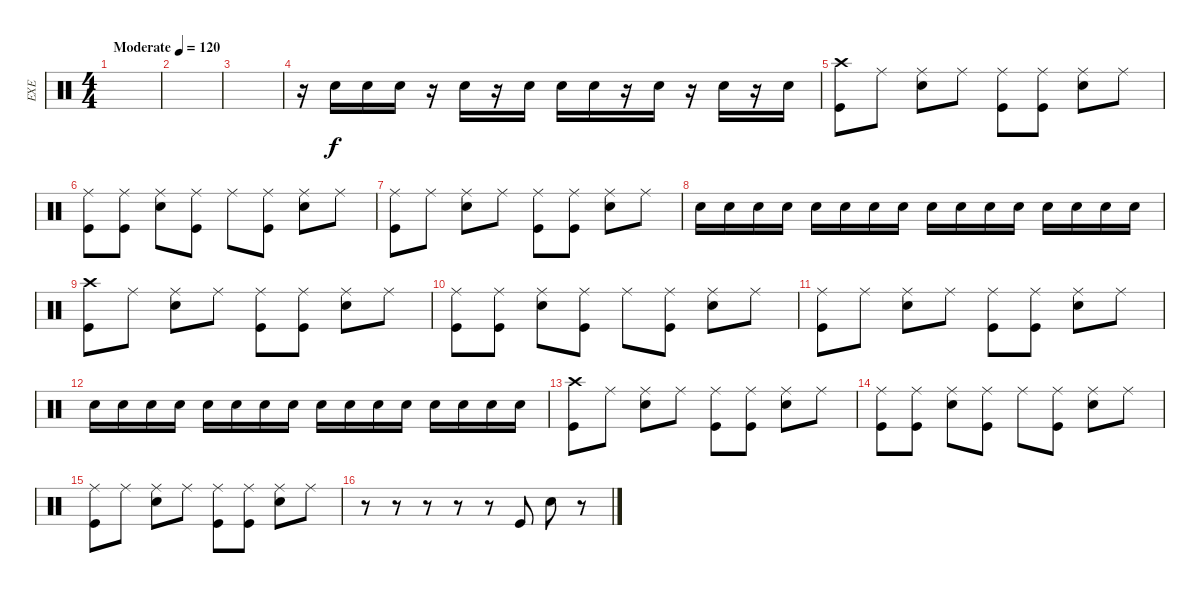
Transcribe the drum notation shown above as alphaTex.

\track ("EXE" "EXE") {instrument percussion}
\staff {score}
\articulation defaults
\ts (4 4)
\tempo (120 "Moderate")
\clef neutral
\ks c
|
|
|
r.16 "Snare (hit) 2".16 "Snare (hit) 2".16 "Snare (hit) 2".16 r.16 "Snare (hit) 2".16 r.16 "Snare (hit) 2".16 "Snare (hit) 2".16 "Snare (hit) 2".16 r.16 "Snare (hit) 2".16 r.16 "Snare (hit) 2".16 r.16 "Snare (hit) 2".16 |
("Kick (hit)" "Crash high (hit)").8 "Ride (middle)".8 ("Snare (hit) 2" "Ride (middle)").8 "Ride (middle)".8 ("Kick (hit)" "Ride (middle)").8 ("Kick (hit)" "Ride (middle)").8 ("Snare (hit) 2" "Ride (middle)").8 "Ride (middle)".8 |
("Kick (hit)" "Ride (middle)").8 ("Kick (hit)" "Ride (middle)").8 ("Snare (hit) 2" "Ride (middle)").8 ("Kick (hit)" "Ride (middle)").8 "Ride (middle)".8 ("Kick (hit)" "Ride (middle)").8 ("Snare (hit) 2" "Ride (middle)").8 "Ride (middle)".8 |
("Kick (hit)" "Ride (middle)").8 "Ride (middle)".8 ("Snare (hit) 2" "Ride (middle)").8 "Ride (middle)".8 ("Kick (hit)" "Ride (middle)").8 ("Kick (hit)" "Ride (middle)").8 ("Snare (hit) 2" "Ride (middle)").8 "Ride (middle)".8 |
"Snare (hit) 2".16 "Snare (hit) 2".16 "Snare (hit) 2".16 "Snare (hit) 2".16 "Snare (hit) 2".16 "Snare (hit) 2".16 "Snare (hit) 2".16 "Snare (hit) 2".16 "Snare (hit) 2".16 "Snare (hit) 2".16 "Snare (hit) 2".16 "Snare (hit) 2".16 "Snare (hit) 2".16 "Snare (hit) 2".16 "Snare (hit) 2".16 "Snare (hit) 2".16 |
("Kick (hit)" "Crash high (hit)").8 "Ride (middle)".8 ("Snare (hit) 2" "Ride (middle)").8 "Ride (middle)".8 ("Kick (hit)" "Ride (middle)").8 ("Kick (hit)" "Ride (middle)").8 ("Snare (hit) 2" "Ride (middle)").8 "Ride (middle)".8 |
("Kick (hit)" "Ride (middle)").8 ("Kick (hit)" "Ride (middle)").8 ("Snare (hit) 2" "Ride (middle)").8 ("Kick (hit)" "Ride (middle)").8 "Ride (middle)".8 ("Kick (hit)" "Ride (middle)").8 ("Snare (hit) 2" "Ride (middle)").8 "Ride (middle)".8 |
("Kick (hit)" "Ride (middle)").8 "Ride (middle)".8 ("Snare (hit) 2" "Ride (middle)").8 "Ride (middle)".8 ("Kick (hit)" "Ride (middle)").8 ("Kick (hit)" "Ride (middle)").8 ("Snare (hit) 2" "Ride (middle)").8 "Ride (middle)".8 |
"Snare (hit) 2".16 "Snare (hit) 2".16 "Snare (hit) 2".16 "Snare (hit) 2".16 "Snare (hit) 2".16 "Snare (hit) 2".16 "Snare (hit) 2".16 "Snare (hit) 2".16 "Snare (hit) 2".16 "Snare (hit) 2".16 "Snare (hit) 2".16 "Snare (hit) 2".16 "Snare (hit) 2".16 "Snare (hit) 2".16 "Snare (hit) 2".16 "Snare (hit) 2".16 |
("Kick (hit)" "Crash high (hit)").8 "Ride (middle)".8 ("Snare (hit) 2" "Ride (middle)").8 "Ride (middle)".8 ("Kick (hit)" "Ride (middle)").8 ("Kick (hit)" "Ride (middle)").8 ("Snare (hit) 2" "Ride (middle)").8 "Ride (middle)".8 |
("Kick (hit)" "Ride (middle)").8 ("Kick (hit)" "Ride (middle)").8 ("Snare (hit) 2" "Ride (middle)").8 ("Kick (hit)" "Ride (middle)").8 "Ride (middle)".8 ("Kick (hit)" "Ride (middle)").8 ("Snare (hit) 2" "Ride (middle)").8 "Ride (middle)".8 |
("Kick (hit)" "Ride (middle)").8 "Ride (middle)".8 ("Snare (hit) 2" "Ride (middle)").8 "Ride (middle)".8 ("Kick (hit)" "Ride (middle)").8 ("Kick (hit)" "Ride (middle)").8 ("Snare (hit) 2" "Ride (middle)").8 "Ride (middle)".8 |
r.8 r.8 r.8 r.8 r.8 "Kick (hit)".8 "Snare (hit) 2".8 r.8
